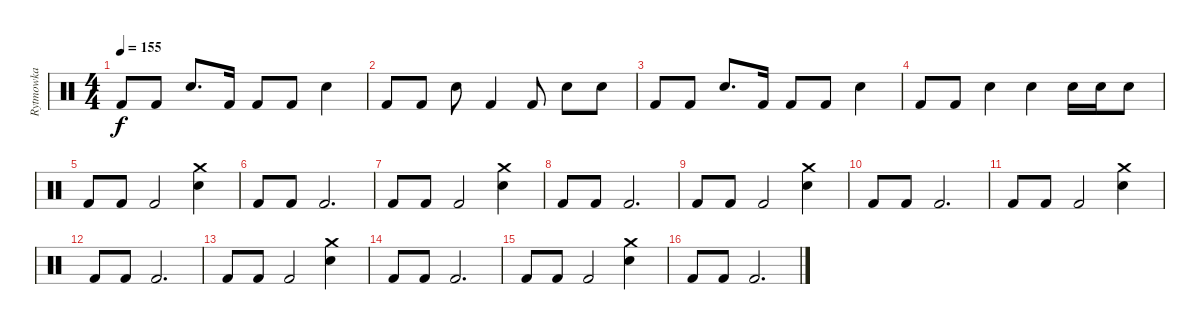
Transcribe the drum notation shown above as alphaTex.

\track ("Rytmowka" "Rytmowka") {instrument percussion}
\staff {score}
\articulation defaults
\ts (4 4)
\tempo 155
\clef neutral
\ks c "Kick (hit) 2".8{dy f} "Kick (hit) 2".8 "Snare (hit) 2".8{d} "Kick (hit) 2".16 "Kick (hit) 2".8 "Kick (hit) 2".8 "Snare (hit) 2".4
|
"Kick (hit) 2".8 "Kick (hit) 2".8 "Snare (hit) 2".8 "Kick (hit) 2".4 "Kick (hit) 2".8 "Snare (hit) 2".8 "Snare (hit) 2".8 |
"Kick (hit) 2".8 "Kick (hit) 2".8 "Snare (hit) 2".8{d} "Kick (hit) 2".16 "Kick (hit) 2".8 "Kick (hit) 2".8 "Snare (hit) 2".4 |
"Kick (hit) 2".8 "Kick (hit) 2".8 "Snare (hit) 2".4 "Snare (hit) 2".4 "Snare (hit) 2".16 "Snare (hit) 2".16 "Snare (hit) 2".8 |
"Kick (hit) 2".8 "Kick (hit) 2".8 "Kick (hit) 2".2 ("Crash medium (hit)" "Snare (hit) 2").4 |
"Kick (hit) 2".8 "Kick (hit) 2".8 "Kick (hit) 2".2{d} |
"Kick (hit) 2".8 "Kick (hit) 2".8 "Kick (hit) 2".2 ("Crash medium (hit)" "Snare (hit) 2").4 |
"Kick (hit) 2".8 "Kick (hit) 2".8 "Kick (hit) 2".2{d} |
"Kick (hit) 2".8 "Kick (hit) 2".8 "Kick (hit) 2".2 ("Crash medium (hit)" "Snare (hit) 2").4 |
"Kick (hit) 2".8 "Kick (hit) 2".8 "Kick (hit) 2".2{d} |
"Kick (hit) 2".8 "Kick (hit) 2".8 "Kick (hit) 2".2 ("Crash medium (hit)" "Snare (hit) 2").4 |
"Kick (hit) 2".8 "Kick (hit) 2".8 "Kick (hit) 2".2{d} |
"Kick (hit) 2".8 "Kick (hit) 2".8 "Kick (hit) 2".2 ("Crash medium (hit)" "Snare (hit) 2").4 |
"Kick (hit) 2".8 "Kick (hit) 2".8 "Kick (hit) 2".2{d} |
"Kick (hit) 2".8 "Kick (hit) 2".8 "Kick (hit) 2".2 ("Crash medium (hit)" "Snare (hit) 2").4 |
"Kick (hit) 2".8 "Kick (hit) 2".8 "Kick (hit) 2".2{d}
